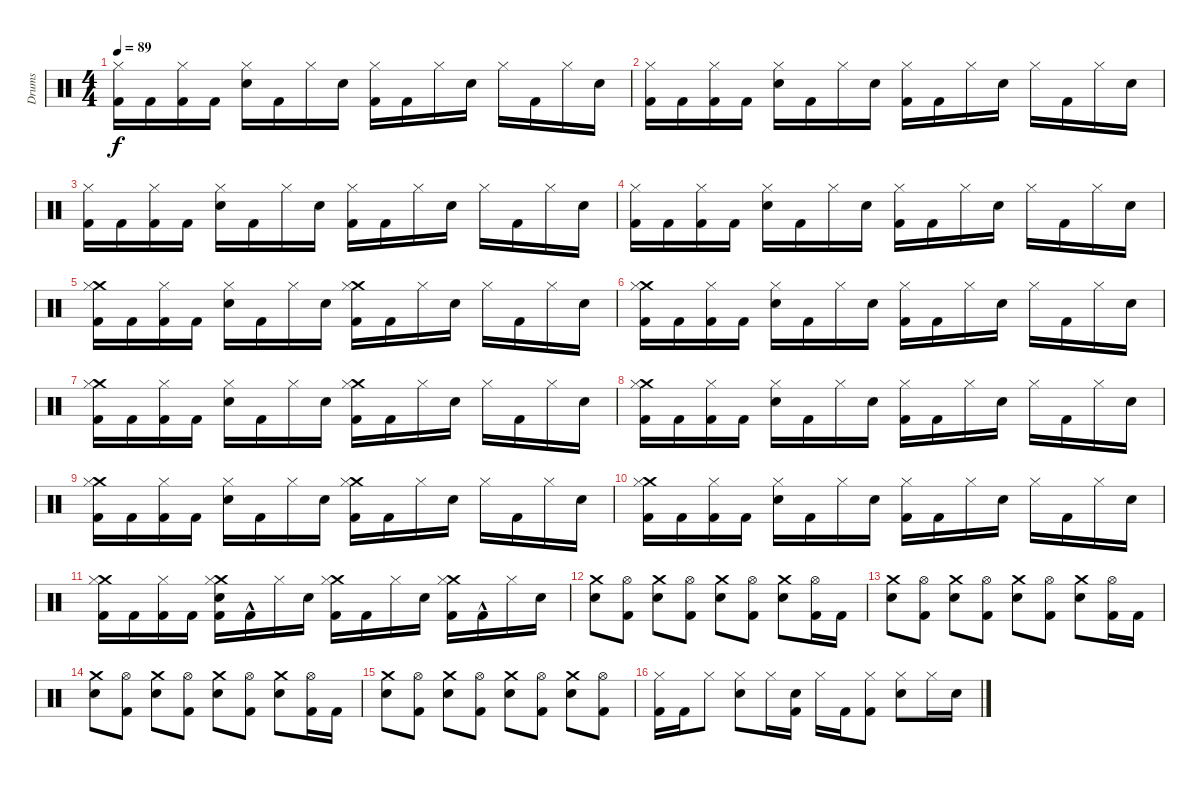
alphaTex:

\track ("Drums" "Drums") {instrument percussion}
\staff {score}
\articulation defaults
\ts (4 4)
\tempo 89
\clef neutral
\ks c
("Kick (hit) 2" "Hi-Hat (closed)").16{dy f} "Kick (hit) 2".16 ("Kick (hit) 2" "Hi-Hat (closed)").16 "Kick (hit) 2".16 ("Snare (hit) 2" "Hi-Hat (closed)").16 "Kick (hit) 2".16 "Hi-Hat (closed)".16 "Snare (hit) 2".16 ("Kick (hit) 2" "Hi-Hat (closed)").16 "Kick (hit) 2".16 "Hi-Hat (closed)".16 "Snare (hit) 2".16 "Hi-Hat (closed)".16 "Kick (hit) 2".16 "Hi-Hat (closed)".16 "Snare (hit) 2".16 |
("Kick (hit) 2" "Hi-Hat (closed)").16 "Kick (hit) 2".16 ("Kick (hit) 2" "Hi-Hat (closed)").16 "Kick (hit) 2".16 ("Snare (hit) 2" "Hi-Hat (closed)").16 "Kick (hit) 2".16 "Hi-Hat (closed)".16 "Snare (hit) 2".16 ("Kick (hit) 2" "Hi-Hat (closed)").16 "Kick (hit) 2".16 "Hi-Hat (closed)".16 "Snare (hit) 2".16 "Hi-Hat (closed)".16 "Kick (hit) 2".16 "Hi-Hat (closed)".16 "Snare (hit) 2".16 |
("Kick (hit) 2" "Hi-Hat (closed)").16 "Kick (hit) 2".16 ("Kick (hit) 2" "Hi-Hat (closed)").16 "Kick (hit) 2".16 ("Snare (hit) 2" "Hi-Hat (closed)").16 "Kick (hit) 2".16 "Hi-Hat (closed)".16 "Snare (hit) 2".16 ("Kick (hit) 2" "Hi-Hat (closed)").16 "Kick (hit) 2".16 "Hi-Hat (closed)".16 "Snare (hit) 2".16 "Hi-Hat (closed)".16 "Kick (hit) 2".16 "Hi-Hat (closed)".16 "Snare (hit) 2".16 |
("Kick (hit) 2" "Hi-Hat (closed)").16 "Kick (hit) 2".16 ("Kick (hit) 2" "Hi-Hat (closed)").16 "Kick (hit) 2".16 ("Snare (hit) 2" "Hi-Hat (closed)").16 "Kick (hit) 2".16 "Hi-Hat (closed)".16 "Snare (hit) 2".16 ("Kick (hit) 2" "Hi-Hat (closed)").16 "Kick (hit) 2".16 "Hi-Hat (closed)".16 "Snare (hit) 2".16 "Hi-Hat (closed)".16 "Kick (hit) 2".16 "Hi-Hat (closed)".16 "Snare (hit) 2".16 |
("Kick (hit) 2" "Crash medium (hit)" "Hi-Hat (closed)").16 "Kick (hit) 2".16 ("Kick (hit) 2" "Hi-Hat (closed)").16 "Kick (hit) 2".16 ("Snare (hit) 2" "Hi-Hat (closed)").16 "Kick (hit) 2".16 "Hi-Hat (closed)".16 "Snare (hit) 2".16 ("Kick (hit) 2" "Crash medium (hit)" "Hi-Hat (closed)").16 "Kick (hit) 2".16 "Hi-Hat (closed)".16 "Snare (hit) 2".16 "Hi-Hat (closed)".16 "Kick (hit) 2".16 "Hi-Hat (closed)".16 "Snare (hit) 2".16 |
("Kick (hit) 2" "Crash medium (hit)" "Hi-Hat (closed)").16 "Kick (hit) 2".16 ("Kick (hit) 2" "Hi-Hat (closed)").16 "Kick (hit) 2".16 ("Snare (hit) 2" "Hi-Hat (closed)").16 "Kick (hit) 2".16 "Hi-Hat (closed)".16 "Snare (hit) 2".16 ("Kick (hit) 2" "Hi-Hat (closed)").16 "Kick (hit) 2".16 "Hi-Hat (closed)".16 "Snare (hit) 2".16 "Hi-Hat (closed)".16 "Kick (hit) 2".16 "Hi-Hat (closed)".16 "Snare (hit) 2".16 |
("Kick (hit) 2" "Crash medium (hit)" "Hi-Hat (closed)").16 "Kick (hit) 2".16 ("Kick (hit) 2" "Hi-Hat (closed)").16 "Kick (hit) 2".16 ("Snare (hit) 2" "Hi-Hat (closed)").16 "Kick (hit) 2".16 "Hi-Hat (closed)".16 "Snare (hit) 2".16 ("Kick (hit) 2" "Crash medium (hit)" "Hi-Hat (closed)").16 "Kick (hit) 2".16 "Hi-Hat (closed)".16 "Snare (hit) 2".16 "Hi-Hat (closed)".16 "Kick (hit) 2".16 "Hi-Hat (closed)".16 "Snare (hit) 2".16 |
("Kick (hit) 2" "Crash medium (hit)" "Hi-Hat (closed)").16 "Kick (hit) 2".16 ("Kick (hit) 2" "Hi-Hat (closed)").16 "Kick (hit) 2".16 ("Snare (hit) 2" "Hi-Hat (closed)").16 "Kick (hit) 2".16 "Hi-Hat (closed)".16 "Snare (hit) 2".16 ("Kick (hit) 2" "Hi-Hat (closed)").16 "Kick (hit) 2".16 "Hi-Hat (closed)".16 "Snare (hit) 2".16 "Hi-Hat (closed)".16 "Kick (hit) 2".16 "Hi-Hat (closed)".16 "Snare (hit) 2".16 |
("Kick (hit) 2" "Crash medium (hit)" "Hi-Hat (closed)").16 "Kick (hit) 2".16 ("Kick (hit) 2" "Hi-Hat (closed)").16 "Kick (hit) 2".16 ("Snare (hit) 2" "Hi-Hat (closed)").16 "Kick (hit) 2".16 "Hi-Hat (closed)".16 "Snare (hit) 2".16 ("Kick (hit) 2" "Crash medium (hit)" "Hi-Hat (closed)").16 "Kick (hit) 2".16 "Hi-Hat (closed)".16 "Snare (hit) 2".16 "Hi-Hat (closed)".16 "Kick (hit) 2".16 "Hi-Hat (closed)".16 "Snare (hit) 2".16 |
("Kick (hit) 2" "Crash medium (hit)" "Hi-Hat (closed)").16 "Kick (hit) 2".16 ("Kick (hit) 2" "Hi-Hat (closed)").16 "Kick (hit) 2".16 ("Snare (hit) 2" "Hi-Hat (closed)").16 "Kick (hit) 2".16 "Hi-Hat (closed)".16 "Snare (hit) 2".16 ("Kick (hit) 2" "Hi-Hat (closed)").16 "Kick (hit) 2".16 "Hi-Hat (closed)".16 "Snare (hit) 2".16 "Hi-Hat (closed)".16 "Kick (hit) 2".16 "Hi-Hat (closed)".16 "Snare (hit) 2".16 |
("Kick (hit) 2" "Crash medium (hit)" "Hi-Hat (closed)").16 "Kick (hit) 2".16 ("Kick (hit) 2" "Hi-Hat (closed)").16 "Kick (hit) 2".16 ("Snare (hit) 2" "Kick (hit) 2" "Crash medium (hit)" "Hi-Hat (closed)").16 "Kick (hit) 2"{hac}.16 "Hi-Hat (closed)".16 "Snare (hit) 2".16 ("Kick (hit) 2" "Crash medium (hit)" "Hi-Hat (closed)").16 "Kick (hit) 2".16 "Hi-Hat (closed)".16 "Snare (hit) 2".16 ("Kick (hit) 2" "Crash medium (hit)" "Hi-Hat (closed)").16 "Kick (hit) 2"{hac}.16 "Hi-Hat (closed)".16 "Snare (hit) 2".16 |
("Snare (hit) 2" "Crash medium (hit)").8 ("Hi-Hat (open)" "Kick (hit) 2").8 ("Snare (hit) 2" "Crash medium (hit)").8 ("Hi-Hat (open)" "Kick (hit) 2").8 ("Snare (hit) 2" "Crash medium (hit)").8 ("Hi-Hat (open)" "Kick (hit) 2").8 ("Snare (hit) 2" "Crash medium (hit)").8 ("Hi-Hat (open)" "Kick (hit) 2").16 "Kick (hit) 2".16 |
("Snare (hit) 2" "Crash medium (hit)").8 ("Hi-Hat (open)" "Kick (hit) 2").8 ("Snare (hit) 2" "Crash medium (hit)").8 ("Hi-Hat (open)" "Kick (hit) 2").8 ("Snare (hit) 2" "Crash medium (hit)").8 ("Hi-Hat (open)" "Kick (hit) 2").8 ("Snare (hit) 2" "Crash medium (hit)").8 ("Hi-Hat (open)" "Kick (hit) 2").16 "Kick (hit) 2".16 |
("Snare (hit) 2" "Crash medium (hit)").8 ("Hi-Hat (open)" "Kick (hit) 2").8 ("Snare (hit) 2" "Crash medium (hit)").8 ("Hi-Hat (open)" "Kick (hit) 2").8 ("Snare (hit) 2" "Crash medium (hit)").8 ("Hi-Hat (open)" "Kick (hit) 2").8 ("Snare (hit) 2" "Crash medium (hit)").8 ("Hi-Hat (open)" "Kick (hit) 2").16 "Kick (hit) 2".16 |
("Snare (hit) 2" "Crash medium (hit)").8 ("Hi-Hat (open)" "Kick (hit) 2").8 ("Snare (hit) 2" "Crash medium (hit)").8 ("Hi-Hat (open)" "Kick (hit) 2").8 ("Snare (hit) 2" "Crash medium (hit)").8 ("Hi-Hat (open)" "Kick (hit) 2").8 ("Snare (hit) 2" "Crash medium (hit)").8 ("Hi-Hat (open)" "Kick (hit) 2").8 |
("Hi-Hat (closed)" "Kick (hit) 2").16 "Kick (hit) 2".16 "Hi-Hat (closed)".8 ("Snare (hit) 2" "Hi-Hat (closed)").8 "Hi-Hat (closed)".16 ("Snare (hit) 2" "Kick (hit) 2").16 "Hi-Hat (closed)".16 "Kick (hit) 2".16 ("Hi-Hat (closed)" "Kick (hit) 2").8 ("Snare (hit) 2" "Hi-Hat (closed)").8 "Hi-Hat (closed)".16 "Snare (hit) 2".16
